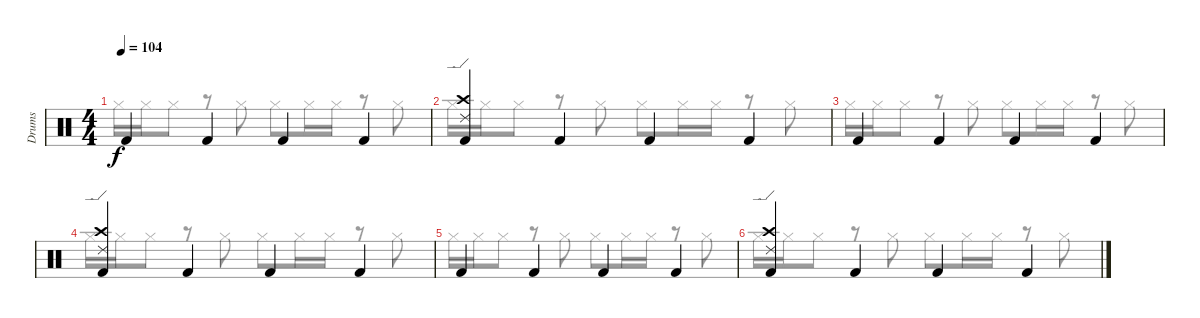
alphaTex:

\track ("Drums" "Drums") {instrument percussion}
\staff {score}
\articulation defaults
\voice
\ts (4 4)
\tempo 104
\clef neutral
\ks c "Kick (hit) 2".4{dy f} "Kick (hit) 2".4 "Kick (hit) 2".4 "Kick (hit) 2".4
|
("Crash high (hit)" "Ride (edge) 2" "Kick (hit) 2").4 "Kick (hit) 2".4 "Kick (hit) 2".4 "Kick (hit) 2".4 |
"Kick (hit) 2".4 "Kick (hit) 2".4 "Kick (hit) 2".4 "Kick (hit) 2".4 |
("Crash high (hit)" "Ride (edge) 2" "Kick (hit) 2").4 "Kick (hit) 2".4 "Kick (hit) 2".4 "Kick (hit) 2".4 |
"Kick (hit) 2".4 "Kick (hit) 2".4 "Kick (hit) 2".4 "Kick (hit) 2".4 |
("Crash high (hit)" "Ride (edge) 2" "Kick (hit) 2").4 "Kick (hit) 2".4 "Kick (hit) 2".4 "Kick (hit) 2".4
\voice
\clef neutral
\ottava regular
\simile none
\ks c "Hi-Hat (closed)".16{dy f} "Hi-Hat (closed)".16 "Hi-Hat (closed)".8
r.8 "Hi-Hat (closed)".8 "Hi-Hat (closed)".8 "Hi-Hat (closed)".16 "Hi-Hat (closed)".16 r.8 "Hi-Hat (closed)".8 |
"Hi-Hat (closed)".16 "Hi-Hat (closed)".16 "Hi-Hat (closed)".8 r.8 "Hi-Hat (closed)".8 "Hi-Hat (closed)".8 "Hi-Hat (closed)".16 "Hi-Hat (closed)".16 r.8 "Hi-Hat (closed)".8 |
"Hi-Hat (closed)".16 "Hi-Hat (closed)".16 "Hi-Hat (closed)".8 r.8 "Hi-Hat (closed)".8 "Hi-Hat (closed)".8 "Hi-Hat (closed)".16 "Hi-Hat (closed)".16 r.8 "Hi-Hat (closed)".8 |
"Hi-Hat (closed)".16 "Hi-Hat (closed)".16 "Hi-Hat (closed)".8 r.8 "Hi-Hat (closed)".8 "Hi-Hat (closed)".8 "Hi-Hat (closed)".16 "Hi-Hat (closed)".16 r.8 "Hi-Hat (closed)".8 |
"Hi-Hat (closed)".16 "Hi-Hat (closed)".16 "Hi-Hat (closed)".8 r.8 "Hi-Hat (closed)".8 "Hi-Hat (closed)".8 "Hi-Hat (closed)".16 "Hi-Hat (closed)".16 r.8 "Hi-Hat (closed)".8 |
"Hi-Hat (closed)".16 "Hi-Hat (closed)".16 "Hi-Hat (closed)".8 r.8 "Hi-Hat (closed)".8 "Hi-Hat (closed)".8 "Hi-Hat (closed)".16 "Hi-Hat (closed)".16 r.8 "Hi-Hat (closed)".8
